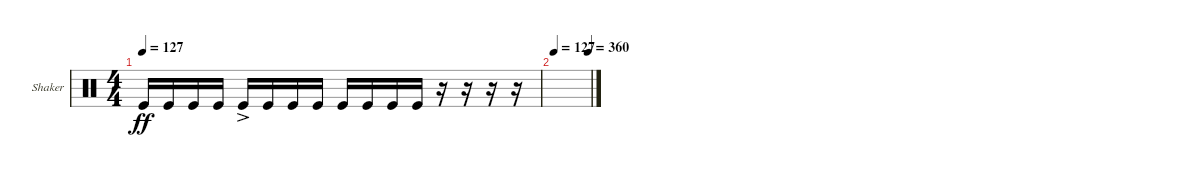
\defaultSystemsLayout 4
\bracketExtendMode groupsimilarinstruments
\firstSystemTrackNameOrientation horizontal
\otherSystemsTrackNameOrientation horizontal
\track ("Shaker" "Shaker") {instrument percussion}
\staff {score}
\articulation defaults
\ts (4 4)
\tempo 127
\clef neutral
\ks c "Kick (hit)".16{dy ff} "Kick (hit)".16 "Kick (hit)".16 "Kick (hit)".16 "Kick (hit)"{ac}.16 "Kick (hit)".16 "Kick (hit)".16 "Kick (hit)".16 "Kick (hit)".16 "Kick (hit)".16 "Kick (hit)".16 "Kick (hit)".16
r.16 r.16 r.16 r.16 |
\tempo 127
\tempo (360 0.94375)
